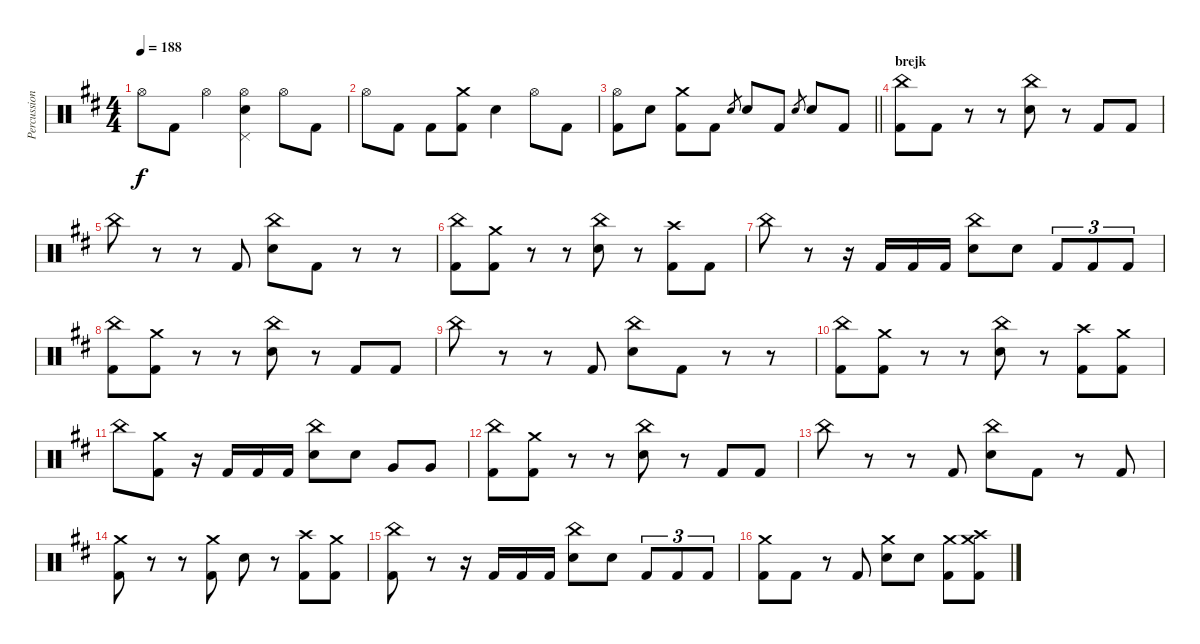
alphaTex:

\track ("Percussion" "Percussion") {instrument percussion}
\staff {score}
\articulation defaults
\ts (4 4)
\tempo 188
\clef neutral
\ks bminor "Hi-Hat (open)".8{dy f} "Kick (hit) 2".8 "Hi-Hat (open)".4
("Pedal Hi-Hat (hit)" "Electric Snare (hit)" "Hi-Hat (open)").4 "Hi-Hat (open)".8 "Kick (hit) 2".8 |
"Hi-Hat (open)".8 "Kick (hit) 2".8 "Kick (hit) 2".8 ("Crash medium (hit)" "Kick (hit) 2").8 "Electric Snare (hit)".4 "Hi-Hat (open)".8 "Kick (hit) 2".8 |
\barLineRight lightlight
("Hi-Hat (open)" "Kick (hit) 2").8 "Electric Snare (hit)".8 ("Crash medium (hit)" "Kick (hit) 2").8 "Kick (hit) 2".8 "Electric Snare (hit)".8{gr} "Electric Snare (hit)".8 "Kick (hit) 2".8 "Electric Snare (hit)".8{gr} "Electric Snare (hit)".8 "Kick (hit) 2".8 |
\section ("" "brejk")
("China (hit)" "Kick (hit) 2").8 "Kick (hit) 2".8 r.8 r.8 ("Electric Snare (hit)" "China (hit)").8 r.8 "Kick (hit) 2".8 "Kick (hit) 2".8 |
"China (hit)".8 r.8 r.8 "Kick (hit) 2".8 ("Electric Snare (hit)" "China (hit)").8 "Kick (hit) 2".8 r.8 r.8 |
("China (hit)" "Kick (hit) 2").8 ("Kick (hit) 2" "Crash medium (hit)").8 r.8 r.8 ("Electric Snare (hit)" "China (hit)").8 r.8 ("Kick (hit) 2" "Crash high (hit)").8 "Kick (hit) 2".8 |
"China (hit)".8 r.8 r.16 "Kick (hit) 2".16 "Kick (hit) 2".16 "Kick (hit) 2".16 ("China (hit)" "Electric Snare (hit)").8 "Electric Snare (hit)".8 "Kick (hit) 2".8{tu (3 2)} "Kick (hit) 2".8{tu (3 2)} "Kick (hit) 2".8{tu (3 2)} |
("China (hit)" "Kick (hit) 2").8 ("Kick (hit) 2" "Crash medium (hit)").8 r.8 r.8 ("Electric Snare (hit)" "China (hit)").8 r.8 "Kick (hit) 2".8 "Kick (hit) 2".8 |
"China (hit)".8 r.8 r.8 "Kick (hit) 2".8 ("Electric Snare (hit)" "China (hit)").8 "Kick (hit) 2".8 r.8 r.8 |
("China (hit)" "Kick (hit) 2").8 ("Kick (hit) 2" "Crash medium (hit)").8 r.8 r.8 ("Electric Snare (hit)" "China (hit)").8 r.8 ("Kick (hit) 2" "Crash high (hit)").8 ("Kick (hit) 2" "Crash medium (hit)").8 |
"China (hit)".8 ("Kick (hit) 2" "Crash medium (hit)").8 r.16 "Kick (hit) 2".16 "Kick (hit) 2".16 "Kick (hit) 2".16 ("China (hit)" "Electric Snare (hit)").8 "Electric Snare (hit)".8 "Very Low Tom (hit)".8 "Very Low Tom (hit)".8 |
("China (hit)" "Kick (hit) 2").8 ("Kick (hit) 2" "Crash medium (hit)").8 r.8 r.8 ("Electric Snare (hit)" "China (hit)").8 r.8 "Kick (hit) 2".8 "Kick (hit) 2".8 |
"China (hit)".8 r.8 r.8 "Kick (hit) 2".8 ("Electric Snare (hit)" "China (hit)").8 "Kick (hit) 2".8 r.8 "Kick (hit) 2".8 |
("Crash medium (hit)" "Kick (hit) 2").8 r.8 r.8 ("Kick (hit) 2" "Crash medium (hit)").8 "Electric Snare (hit)".8 r.8 ("Kick (hit) 2" "Crash high (hit)").8 ("Kick (hit) 2" "Crash medium (hit)").8 |
("China (hit)" "Kick (hit) 2").8 r.8 r.16 "Kick (hit) 2".16 "Kick (hit) 2".16 "Kick (hit) 2".16 ("China (hit)" "Electric Snare (hit)").8 "Electric Snare (hit)".8 "Kick (hit) 2".8{tu (3 2)} "Kick (hit) 2".8{tu (3 2)} "Kick (hit) 2".8{tu (3 2)} |
("Crash medium (hit)" "Kick (hit) 2").8 "Kick (hit) 2".8 r.8 "Kick (hit) 2".8 ("Electric Snare (hit)" "Crash medium (hit)").8 "Electric Snare (hit)".8 ("Kick (hit) 2" "Crash medium (hit)").8 ("Kick (hit) 2" "Crash medium (hit)" "Crash high (hit)").8
